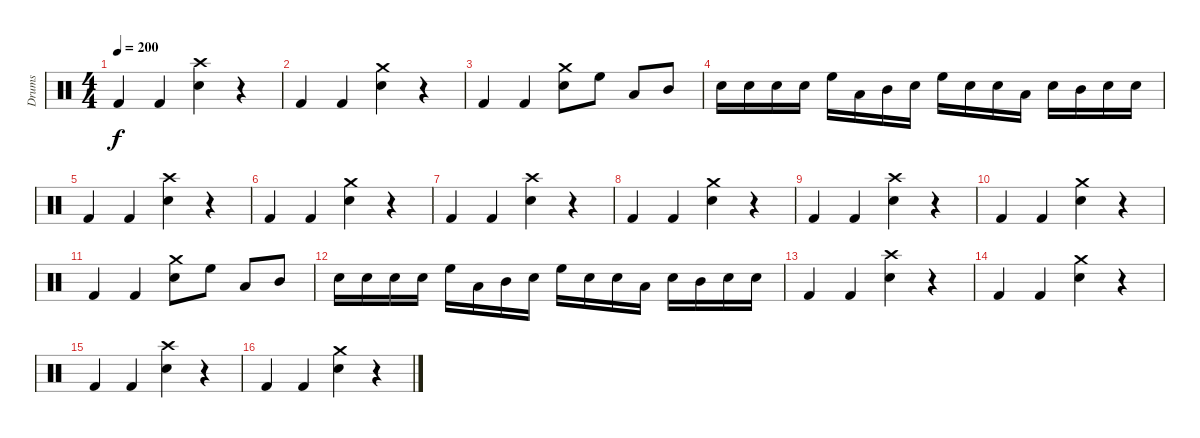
\track ("Drums" "Drums") {instrument percussion}
\staff {score}
\articulation defaults
\ts (4 4)
\tempo 200
\clef neutral
\ks c "Kick (hit) 2".4{dy f} "Kick (hit) 2".4
("Electric Snare (hit)" "Crash high (hit)").4 r.4 |
"Kick (hit) 2".4 "Kick (hit) 2".4 ("Electric Snare (hit)" "Crash medium (hit)").4 r.4 |
"Kick (hit) 2".4 "Kick (hit) 2".4 ("Electric Snare (hit)" "Crash medium (hit)").8 "High Floor Tom (hit)".8 "Low Tom (hit)".8 "Mid Tom (hit)".8 |
"Electric Snare (hit)".16 "Electric Snare (hit)".16 "Electric Snare (hit)".16 "Electric Snare (hit)".16 "High Floor Tom (hit)".16 "Low Tom (hit)".16 "Mid Tom (hit)".16 "Electric Snare (hit)".16 "High Floor Tom (hit)".16 "Electric Snare (hit)".16 "Electric Snare (hit)".16 "Low Tom (hit)".16 "Electric Snare (hit)".16 "Mid Tom (hit)".16 "Electric Snare (hit)".16 "Electric Snare (hit)".16 |
"Kick (hit) 2".4 "Kick (hit) 2".4 ("Electric Snare (hit)" "Crash high (hit)").4 r.4 |
"Kick (hit) 2".4 "Kick (hit) 2".4 ("Electric Snare (hit)" "Crash medium (hit)").4 r.4 |
"Kick (hit) 2".4 "Kick (hit) 2".4 ("Electric Snare (hit)" "Crash high (hit)").4 r.4 |
"Kick (hit) 2".4 "Kick (hit) 2".4 ("Electric Snare (hit)" "Crash medium (hit)").4 r.4 |
"Kick (hit) 2".4 "Kick (hit) 2".4 ("Electric Snare (hit)" "Crash high (hit)").4 r.4 |
"Kick (hit) 2".4 "Kick (hit) 2".4 ("Electric Snare (hit)" "Crash medium (hit)").4 r.4 |
"Kick (hit) 2".4 "Kick (hit) 2".4 ("Electric Snare (hit)" "Crash medium (hit)").8 "High Floor Tom (hit)".8 "Low Tom (hit)".8 "Mid Tom (hit)".8 |
"Electric Snare (hit)".16 "Electric Snare (hit)".16 "Electric Snare (hit)".16 "Electric Snare (hit)".16 "High Floor Tom (hit)".16 "Low Tom (hit)".16 "Mid Tom (hit)".16 "Electric Snare (hit)".16 "High Floor Tom (hit)".16 "Electric Snare (hit)".16 "Electric Snare (hit)".16 "Low Tom (hit)".16 "Electric Snare (hit)".16 "Mid Tom (hit)".16 "Electric Snare (hit)".16 "Electric Snare (hit)".16 |
"Kick (hit) 2".4 "Kick (hit) 2".4 ("Electric Snare (hit)" "Crash high (hit)").4 r.4 |
"Kick (hit) 2".4 "Kick (hit) 2".4 ("Electric Snare (hit)" "Crash medium (hit)").4 r.4 |
"Kick (hit) 2".4 "Kick (hit) 2".4 ("Electric Snare (hit)" "Crash high (hit)").4 r.4 |
"Kick (hit) 2".4 "Kick (hit) 2".4 ("Electric Snare (hit)" "Crash medium (hit)").4 r.4
